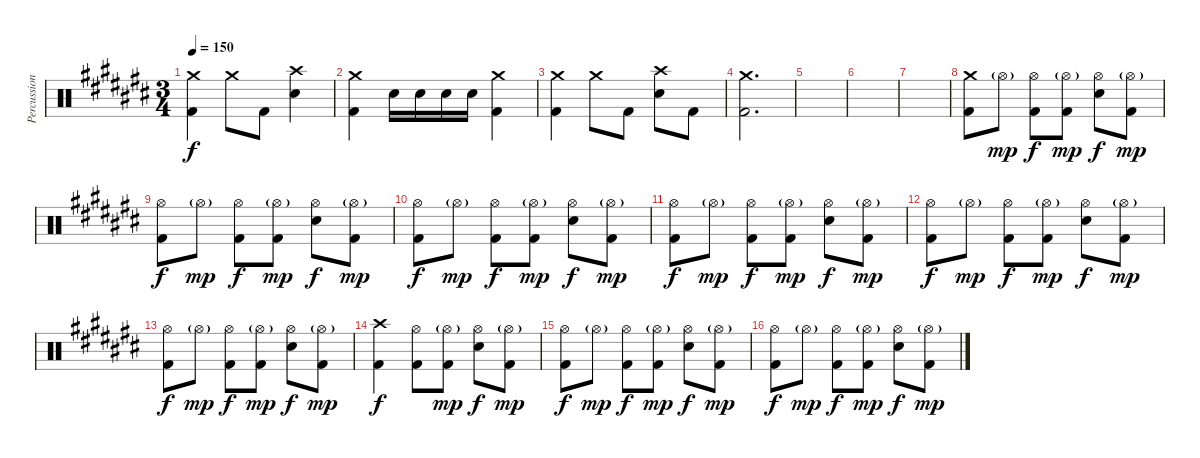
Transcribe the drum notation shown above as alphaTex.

\track ("Percussion" "Percussion") {instrument percussion}
\staff {score}
\articulation defaults
\ts (3 4)
\tempo 150
\clef neutral
\ks c#
("Crash medium (hit)" "Kick (hit) 2").4{dy f} "Crash medium (hit)".8 "Kick (hit) 2".8 ("Crash high (hit)" "Electric Snare (hit)").4 |
("Crash medium (hit)" "Kick (hit) 2").4 "Electric Snare (hit)".16 "Electric Snare (hit)".16 "Electric Snare (hit)".16 "Electric Snare (hit)".16 ("Crash medium (hit)" "Kick (hit) 2").4 |
("Crash medium (hit)" "Kick (hit) 2").4 "Crash medium (hit)".8 "Kick (hit) 2".8 ("Crash high (hit)" "Electric Snare (hit)").8 "Kick (hit) 2".8 |
("Crash medium (hit)" "Kick (hit) 2").2{d} |
|
|
|
("Crash medium (hit)" "Kick (hit) 2").8 "Hi-Hat (open)"{g}.8{dy mp} ("Hi-Hat (open)" "Kick (hit) 2").8{dy f} ("Hi-Hat (open)"{g} "Kick (hit) 2").8{dy mp} ("Hi-Hat (open)" "Electric Snare (hit)").8{dy f} ("Hi-Hat (open)"{g} "Kick (hit) 2").8{dy mp} |
("Hi-Hat (open)" "Kick (hit) 2").8{dy f} "Hi-Hat (open)"{g}.8{dy mp} ("Hi-Hat (open)" "Kick (hit) 2").8{dy f} ("Hi-Hat (open)"{g} "Kick (hit) 2").8{dy mp} ("Hi-Hat (open)" "Electric Snare (hit)").8{dy f} ("Hi-Hat (open)"{g} "Kick (hit) 2").8{dy mp} |
("Hi-Hat (open)" "Kick (hit) 2").8{dy f} "Hi-Hat (open)"{g}.8{dy mp} ("Hi-Hat (open)" "Kick (hit) 2").8{dy f} ("Hi-Hat (open)"{g} "Kick (hit) 2").8{dy mp} ("Hi-Hat (open)" "Electric Snare (hit)").8{dy f} ("Hi-Hat (open)"{g} "Kick (hit) 2").8{dy mp} |
("Hi-Hat (open)" "Kick (hit) 2").8{dy f} "Hi-Hat (open)"{g}.8{dy mp} ("Hi-Hat (open)" "Kick (hit) 2").8{dy f} ("Hi-Hat (open)"{g} "Kick (hit) 2").8{dy mp} ("Hi-Hat (open)" "Electric Snare (hit)").8{dy f} ("Hi-Hat (open)"{g} "Kick (hit) 2").8{dy mp} |
("Hi-Hat (open)" "Kick (hit) 2").8{dy f} "Hi-Hat (open)"{g}.8{dy mp} ("Hi-Hat (open)" "Kick (hit) 2").8{dy f} ("Hi-Hat (open)"{g} "Kick (hit) 2").8{dy mp} ("Hi-Hat (open)" "Electric Snare (hit)").8{dy f} ("Hi-Hat (open)"{g} "Kick (hit) 2").8{dy mp} |
("Hi-Hat (open)" "Kick (hit) 2").8{dy f} "Hi-Hat (open)"{g}.8{dy mp} ("Hi-Hat (open)" "Kick (hit) 2").8{dy f} ("Hi-Hat (open)"{g} "Kick (hit) 2").8{dy mp} ("Hi-Hat (open)" "Electric Snare (hit)").8{dy f} ("Hi-Hat (open)"{g} "Kick (hit) 2").8{dy mp} |
("Crash high (hit)" "Kick (hit) 2").4{dy f} ("Hi-Hat (open)" "Kick (hit) 2").8 ("Hi-Hat (open)"{g} "Kick (hit) 2").8{dy mp} ("Hi-Hat (open)" "Electric Snare (hit)").8{dy f} ("Hi-Hat (open)"{g} "Kick (hit) 2").8{dy mp} |
("Hi-Hat (open)" "Kick (hit) 2").8{dy f} "Hi-Hat (open)"{g}.8{dy mp} ("Hi-Hat (open)" "Kick (hit) 2").8{dy f} ("Hi-Hat (open)"{g} "Kick (hit) 2").8{dy mp} ("Hi-Hat (open)" "Electric Snare (hit)").8{dy f} ("Hi-Hat (open)"{g} "Kick (hit) 2").8{dy mp} |
("Hi-Hat (open)" "Kick (hit) 2").8{dy f} "Hi-Hat (open)"{g}.8{dy mp} ("Hi-Hat (open)" "Kick (hit) 2").8{dy f} ("Hi-Hat (open)"{g} "Kick (hit) 2").8{dy mp} ("Hi-Hat (open)" "Electric Snare (hit)").8{dy f} ("Hi-Hat (open)"{g} "Kick (hit) 2").8{dy mp}
